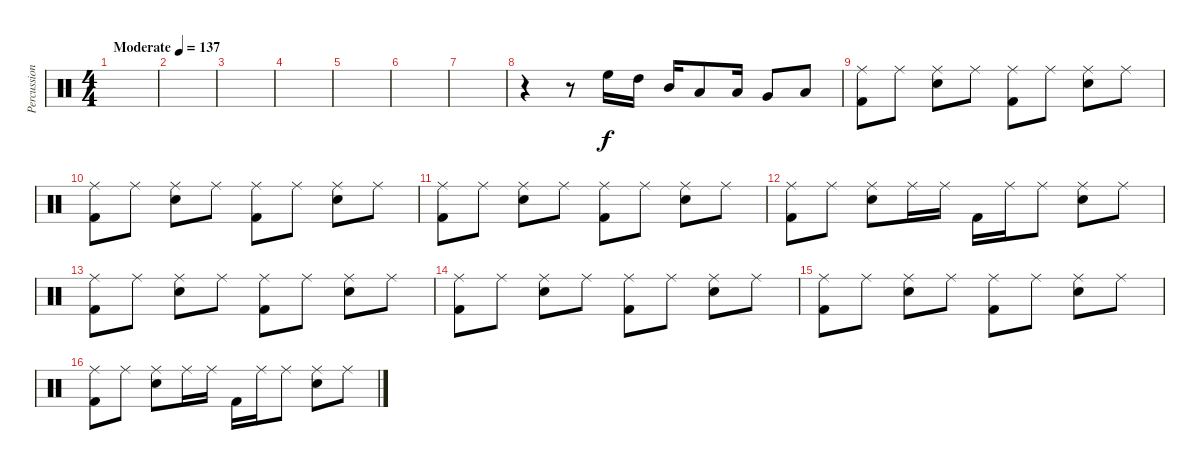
\track ("Percussion" "Percussion") {instrument percussion}
\staff {score}
\articulation defaults
\ts (4 4)
\tempo (137 "Moderate")
\clef neutral
\ks c
|
|
|
|
|
|
|
r.4 r.8 "High Floor Tom (hit)".16 "High Tom (hit)".16 "Mid Tom (hit)".16 "Low Tom (hit)".8 "Low Tom (hit)".16 "Very Low Tom (hit)".8 "Low Floor Tom (hit)".8 |
("Ride (middle)" "Kick (hit) 2").8 "Ride (middle)".8 ("Ride (middle)" "Snare (hit) 2").8 "Ride (middle)".8 ("Ride (middle)" "Kick (hit) 2").8 "Ride (middle)".8 ("Ride (middle)" "Snare (hit) 2").8 "Ride (middle)".8 |
("Ride (middle)" "Kick (hit) 2").8 "Ride (middle)".8 ("Ride (middle)" "Snare (hit) 2").8 "Ride (middle)".8 ("Ride (middle)" "Kick (hit) 2").8 "Ride (middle)".8 ("Ride (middle)" "Snare (hit) 2").8 "Ride (middle)".8 |
("Ride (middle)" "Kick (hit) 2").8 "Ride (middle)".8 ("Ride (middle)" "Snare (hit) 2").8 "Ride (middle)".8 ("Ride (middle)" "Kick (hit) 2").8 "Ride (middle)".8 ("Ride (middle)" "Snare (hit) 2").8 "Ride (middle)".8 |
("Ride (middle)" "Kick (hit) 2").8 "Ride (middle)".8 ("Ride (middle)" "Snare (hit) 2").8 "Ride (middle)".16 "Ride (middle)".16 "Kick (hit) 2".16 "Ride (middle)".16 "Ride (middle)".8 ("Ride (middle)" "Snare (hit) 2").8 "Ride (middle)".8 |
("Ride (middle)" "Kick (hit) 2").8 "Ride (middle)".8 ("Ride (middle)" "Snare (hit) 2").8 "Ride (middle)".8 ("Ride (middle)" "Kick (hit) 2").8 "Ride (middle)".8 ("Ride (middle)" "Snare (hit) 2").8 "Ride (middle)".8 |
("Ride (middle)" "Kick (hit) 2").8 "Ride (middle)".8 ("Ride (middle)" "Snare (hit) 2").8 "Ride (middle)".8 ("Ride (middle)" "Kick (hit) 2").8 "Ride (middle)".8 ("Ride (middle)" "Snare (hit) 2").8 "Ride (middle)".8 |
("Ride (middle)" "Kick (hit) 2").8 "Ride (middle)".8 ("Ride (middle)" "Snare (hit) 2").8 "Ride (middle)".8 ("Ride (middle)" "Kick (hit) 2").8 "Ride (middle)".8 ("Ride (middle)" "Snare (hit) 2").8 "Ride (middle)".8 |
("Ride (middle)" "Kick (hit) 2").8 "Ride (middle)".8 ("Ride (middle)" "Snare (hit) 2").8 "Ride (middle)".16 "Ride (middle)".16 "Kick (hit) 2".16 "Ride (middle)".16 "Ride (middle)".8 ("Ride (middle)" "Snare (hit) 2").8 "Ride (middle)".8
